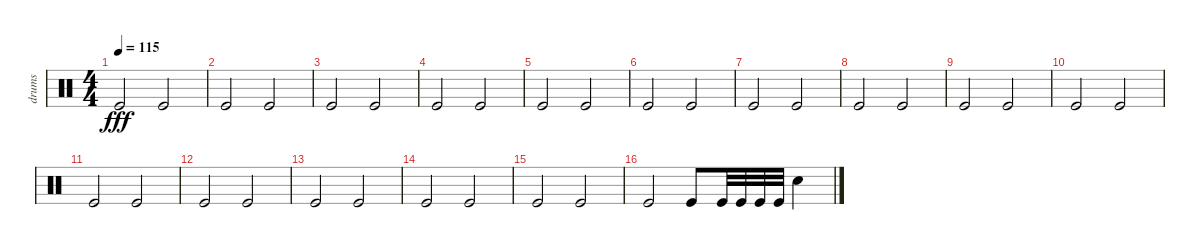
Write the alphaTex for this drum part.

\track ("drums" "drums") {instrument percussion}
\staff {score}
\articulation defaults
\ts (4 4)
\tempo 115
\clef neutral
\ks c "Kick (hit)".2{dy fff} "Kick (hit)".2
|
"Kick (hit)".2 "Kick (hit)".2 |
"Kick (hit)".2 "Kick (hit)".2 |
"Kick (hit)".2 "Kick (hit)".2 |
"Kick (hit)".2 "Kick (hit)".2 |
"Kick (hit)".2 "Kick (hit)".2 |
"Kick (hit)".2 "Kick (hit)".2 |
"Kick (hit)".2 "Kick (hit)".2 |
"Kick (hit)".2 "Kick (hit)".2 |
"Kick (hit)".2 "Kick (hit)".2 |
"Kick (hit)".2 "Kick (hit)".2 |
"Kick (hit)".2 "Kick (hit)".2 |
"Kick (hit)".2 "Kick (hit)".2 |
"Kick (hit)".2 "Kick (hit)".2 |
"Kick (hit)".2 "Kick (hit)".2 |
"Kick (hit)".2 "Kick (hit)".8 "Kick (hit)".32 "Kick (hit)".32 "Kick (hit)".32 "Kick (hit)".32 "Electric Snare (hit)".4
